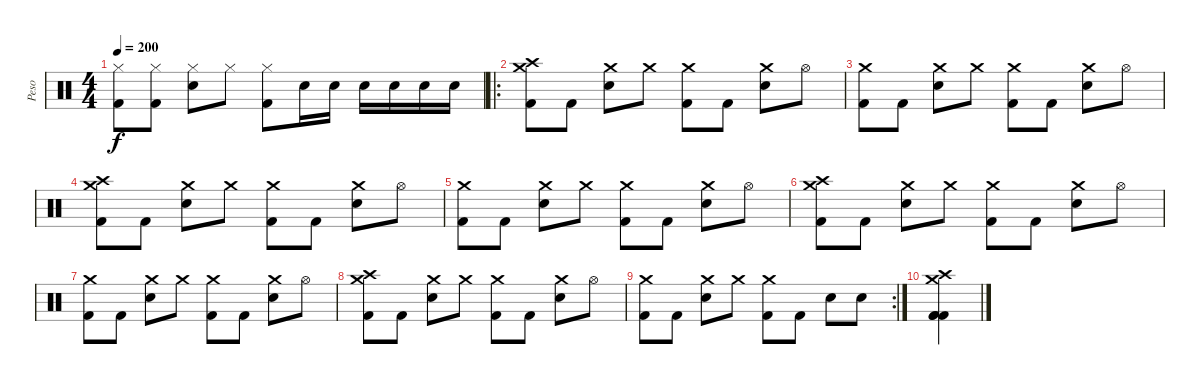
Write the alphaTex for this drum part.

\track ("Peso" "Peso") {instrument percussion}
\staff {score}
\articulation defaults
\ts (4 4)
\tempo 200
\clef neutral
\ks c
("Hi-Hat (closed)" "Kick (hit) 2").8{dy f} ("Hi-Hat (closed)" "Kick (hit) 2").8 ("Hi-Hat (closed)" "Snare (hit) 2").8 "Hi-Hat (closed)".8 ("Hi-Hat (closed)" "Kick (hit) 2").8 "Snare (hit) 2".16 "Snare (hit) 2".16 "Snare (hit) 2".16 "Snare (hit) 2".16 "Snare (hit) 2".16 "Snare (hit) 2".16 |
\ro
("Crash high (hit)" "Crash medium (hit)" "Kick (hit) 2").8 "Kick (hit) 2".8 ("Crash medium (hit)" "Snare (hit) 2").8 "Crash medium (hit)".8 ("Crash medium (hit)" "Kick (hit) 2").8 "Kick (hit) 2".8 ("Crash medium (hit)" "Snare (hit) 2").8 "Hi-Hat (open)".8 |
("Crash medium (hit)" "Kick (hit) 2").8 "Kick (hit) 2".8 ("Crash medium (hit)" "Snare (hit) 2").8 "Crash medium (hit)".8 ("Crash medium (hit)" "Kick (hit) 2").8 "Kick (hit) 2".8 ("Crash medium (hit)" "Snare (hit) 2").8 "Hi-Hat (open)".8 |
("Crash high (hit)" "Crash medium (hit)" "Kick (hit) 2").8 "Kick (hit) 2".8 ("Crash medium (hit)" "Snare (hit) 2").8 "Crash medium (hit)".8 ("Crash medium (hit)" "Kick (hit) 2").8 "Kick (hit) 2".8 ("Crash medium (hit)" "Snare (hit) 2").8 "Hi-Hat (open)".8 |
("Crash medium (hit)" "Kick (hit) 2").8 "Kick (hit) 2".8 ("Crash medium (hit)" "Snare (hit) 2").8 "Crash medium (hit)".8 ("Crash medium (hit)" "Kick (hit) 2").8 "Kick (hit) 2".8 ("Crash medium (hit)" "Snare (hit) 2").8 "Hi-Hat (open)".8 |
("Crash high (hit)" "Crash medium (hit)" "Kick (hit) 2").8 "Kick (hit) 2".8 ("Crash medium (hit)" "Snare (hit) 2").8 "Crash medium (hit)".8 ("Crash medium (hit)" "Kick (hit) 2").8 "Kick (hit) 2".8 ("Crash medium (hit)" "Snare (hit) 2").8 "Hi-Hat (open)".8 |
("Crash medium (hit)" "Kick (hit) 2").8 "Kick (hit) 2".8 ("Crash medium (hit)" "Snare (hit) 2").8 "Crash medium (hit)".8 ("Crash medium (hit)" "Kick (hit) 2").8 "Kick (hit) 2".8 ("Crash medium (hit)" "Snare (hit) 2").8 "Hi-Hat (open)".8 |
("Crash high (hit)" "Crash medium (hit)" "Kick (hit) 2").8 "Kick (hit) 2".8 ("Crash medium (hit)" "Snare (hit) 2").8 "Crash medium (hit)".8 ("Crash medium (hit)" "Kick (hit) 2").8 "Kick (hit) 2".8 ("Crash medium (hit)" "Snare (hit) 2").8 "Hi-Hat (open)".8 |
\rc 2
("Crash medium (hit)" "Kick (hit) 2").8 "Kick (hit) 2".8 ("Crash medium (hit)" "Snare (hit) 2").8 "Crash medium (hit)".8 ("Crash medium (hit)" "Kick (hit) 2").8 "Kick (hit) 2".8 "Snare (hit) 2".8 "Snare (hit) 2".8 |
("Crash medium (hit)" "Crash high (hit)" "Kick (hit) 2" "Kick (hit) 2" "Kick (hit) 2").4
